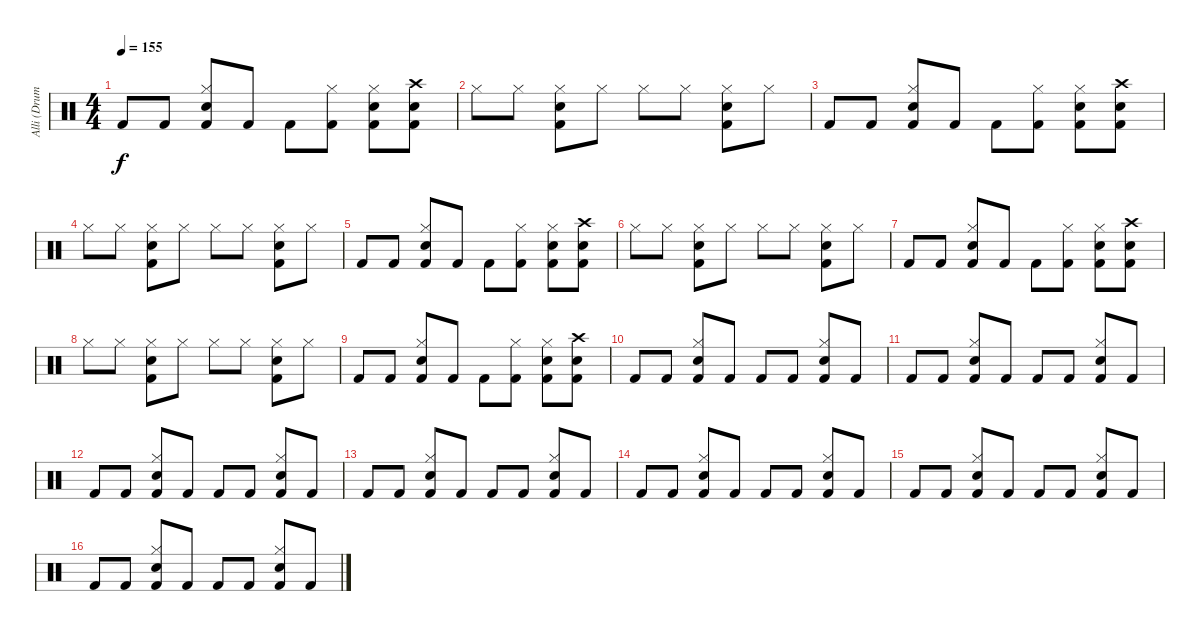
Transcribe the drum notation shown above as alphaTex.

\track ("Alli (Drums)" "Alli (Drum") {instrument percussion}
\staff {score}
\articulation defaults
\ts (4 4)
\tempo 155
\clef neutral
\ks c "Kick (hit) 2".8{dy f} "Kick (hit) 2".8
("Hi-Hat (closed)" "Snare (hit) 2" "Kick (hit) 2").8 "Kick (hit) 2".8 "Kick (hit) 2".8 ("Hi-Hat (closed)" "Kick (hit) 2").8 ("Hi-Hat (closed)" "Snare (hit) 2" "Kick (hit) 2").8 ("Crash high (hit)" "Snare (hit) 2" "Kick (hit) 2").8 |
"Hi-Hat (closed)".8 "Hi-Hat (closed)".8 ("Snare (hit) 2" "Hi-Hat (closed)" "Kick (hit) 2").8 "Hi-Hat (closed)".8 "Hi-Hat (closed)".8 "Hi-Hat (closed)".8 ("Snare (hit) 2" "Hi-Hat (closed)" "Kick (hit) 2").8 "Hi-Hat (closed)".8 |
"Kick (hit) 2".8 "Kick (hit) 2".8 ("Hi-Hat (closed)" "Snare (hit) 2" "Kick (hit) 2").8 "Kick (hit) 2".8 "Kick (hit) 2".8 ("Hi-Hat (closed)" "Kick (hit) 2").8 ("Hi-Hat (closed)" "Snare (hit) 2" "Kick (hit) 2").8 ("Crash high (hit)" "Snare (hit) 2" "Kick (hit) 2").8 |
"Hi-Hat (closed)".8 "Hi-Hat (closed)".8 ("Snare (hit) 2" "Hi-Hat (closed)" "Kick (hit) 2").8 "Hi-Hat (closed)".8 "Hi-Hat (closed)".8 "Hi-Hat (closed)".8 ("Snare (hit) 2" "Hi-Hat (closed)" "Kick (hit) 2").8 "Hi-Hat (closed)".8 |
"Kick (hit) 2".8 "Kick (hit) 2".8 ("Hi-Hat (closed)" "Snare (hit) 2" "Kick (hit) 2").8 "Kick (hit) 2".8 "Kick (hit) 2".8 ("Hi-Hat (closed)" "Kick (hit) 2").8 ("Hi-Hat (closed)" "Snare (hit) 2" "Kick (hit) 2").8 ("Crash high (hit)" "Snare (hit) 2" "Kick (hit) 2").8 |
"Hi-Hat (closed)".8 "Hi-Hat (closed)".8 ("Snare (hit) 2" "Hi-Hat (closed)" "Kick (hit) 2").8 "Hi-Hat (closed)".8 "Hi-Hat (closed)".8 "Hi-Hat (closed)".8 ("Snare (hit) 2" "Hi-Hat (closed)" "Kick (hit) 2").8 "Hi-Hat (closed)".8 |
"Kick (hit) 2".8 "Kick (hit) 2".8 ("Hi-Hat (closed)" "Snare (hit) 2" "Kick (hit) 2").8 "Kick (hit) 2".8 "Kick (hit) 2".8 ("Hi-Hat (closed)" "Kick (hit) 2").8 ("Hi-Hat (closed)" "Snare (hit) 2" "Kick (hit) 2").8 ("Crash high (hit)" "Snare (hit) 2" "Kick (hit) 2").8 |
"Hi-Hat (closed)".8 "Hi-Hat (closed)".8 ("Snare (hit) 2" "Hi-Hat (closed)" "Kick (hit) 2").8 "Hi-Hat (closed)".8 "Hi-Hat (closed)".8 "Hi-Hat (closed)".8 ("Snare (hit) 2" "Hi-Hat (closed)" "Kick (hit) 2").8 "Hi-Hat (closed)".8 |
"Kick (hit) 2".8 "Kick (hit) 2".8 ("Hi-Hat (closed)" "Snare (hit) 2" "Kick (hit) 2").8 "Kick (hit) 2".8 "Kick (hit) 2".8 ("Hi-Hat (closed)" "Kick (hit) 2").8 ("Hi-Hat (closed)" "Snare (hit) 2" "Kick (hit) 2").8 ("Crash high (hit)" "Snare (hit) 2" "Kick (hit) 2").8 |
"Kick (hit) 2".8 "Kick (hit) 2".8 ("Hi-Hat (closed)" "Snare (hit) 2" "Kick (hit) 2").8 "Kick (hit) 2".8 "Kick (hit) 2".8 "Kick (hit) 2".8 ("Hi-Hat (closed)" "Snare (hit) 2" "Kick (hit) 2").8 "Kick (hit) 2".8 |
"Kick (hit) 2".8 "Kick (hit) 2".8 ("Hi-Hat (closed)" "Snare (hit) 2" "Kick (hit) 2").8 "Kick (hit) 2".8 "Kick (hit) 2".8 "Kick (hit) 2".8 ("Hi-Hat (closed)" "Snare (hit) 2" "Kick (hit) 2").8 "Kick (hit) 2".8 |
"Kick (hit) 2".8 "Kick (hit) 2".8 ("Hi-Hat (closed)" "Snare (hit) 2" "Kick (hit) 2").8 "Kick (hit) 2".8 "Kick (hit) 2".8 "Kick (hit) 2".8 ("Hi-Hat (closed)" "Snare (hit) 2" "Kick (hit) 2").8 "Kick (hit) 2".8 |
"Kick (hit) 2".8 "Kick (hit) 2".8 ("Hi-Hat (closed)" "Snare (hit) 2" "Kick (hit) 2").8 "Kick (hit) 2".8 "Kick (hit) 2".8 "Kick (hit) 2".8 ("Hi-Hat (closed)" "Snare (hit) 2" "Kick (hit) 2").8 "Kick (hit) 2".8 |
"Kick (hit) 2".8 "Kick (hit) 2".8 ("Hi-Hat (closed)" "Snare (hit) 2" "Kick (hit) 2").8 "Kick (hit) 2".8 "Kick (hit) 2".8 "Kick (hit) 2".8 ("Hi-Hat (closed)" "Snare (hit) 2" "Kick (hit) 2").8 "Kick (hit) 2".8 |
"Kick (hit) 2".8 "Kick (hit) 2".8 ("Hi-Hat (closed)" "Snare (hit) 2" "Kick (hit) 2").8 "Kick (hit) 2".8 "Kick (hit) 2".8 "Kick (hit) 2".8 ("Hi-Hat (closed)" "Snare (hit) 2" "Kick (hit) 2").8 "Kick (hit) 2".8 |
"Kick (hit) 2".8 "Kick (hit) 2".8 ("Hi-Hat (closed)" "Snare (hit) 2" "Kick (hit) 2").8 "Kick (hit) 2".8 "Kick (hit) 2".8 "Kick (hit) 2".8 ("Hi-Hat (closed)" "Snare (hit) 2" "Kick (hit) 2").8 "Kick (hit) 2".8
